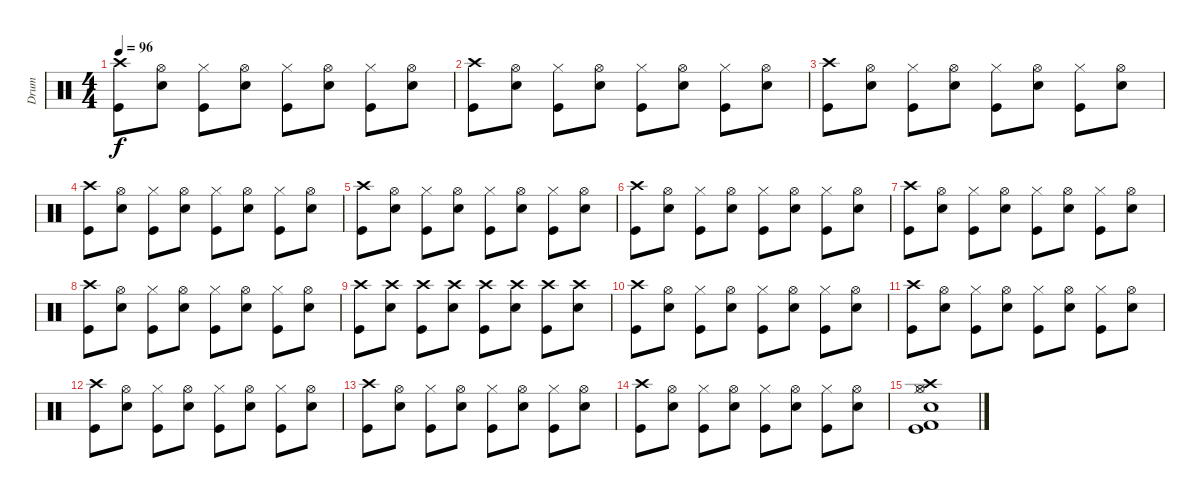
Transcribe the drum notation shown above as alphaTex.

\track ("Drum" "Drum") {instrument percussion}
\staff {score}
\articulation defaults
\ts (4 4)
\tempo 96
\clef neutral
\ks c
("Crash high (hit)" "Kick (hit)").8{dy f} ("Hi-Hat (open)" "Electric Snare (hit)").8 ("Hi-Hat (closed)" "Kick (hit)").8 ("Hi-Hat (open)" "Electric Snare (hit)").8 ("Hi-Hat (closed)" "Kick (hit)").8 ("Hi-Hat (open)" "Electric Snare (hit)").8 ("Hi-Hat (closed)" "Kick (hit)").8 ("Hi-Hat (open)" "Electric Snare (hit)").8 |
("Crash high (hit)" "Kick (hit)").8 ("Hi-Hat (open)" "Electric Snare (hit)").8 ("Hi-Hat (closed)" "Kick (hit)").8 ("Hi-Hat (open)" "Electric Snare (hit)").8 ("Hi-Hat (closed)" "Kick (hit)").8 ("Hi-Hat (open)" "Electric Snare (hit)").8 ("Hi-Hat (closed)" "Kick (hit)").8 ("Hi-Hat (open)" "Electric Snare (hit)").8 |
("Crash high (hit)" "Kick (hit)").8 ("Hi-Hat (open)" "Electric Snare (hit)").8 ("Hi-Hat (closed)" "Kick (hit)").8 ("Hi-Hat (open)" "Electric Snare (hit)").8 ("Hi-Hat (closed)" "Kick (hit)").8 ("Hi-Hat (open)" "Electric Snare (hit)").8 ("Hi-Hat (closed)" "Kick (hit)").8 ("Hi-Hat (open)" "Electric Snare (hit)").8 |
("Crash high (hit)" "Kick (hit)").8 ("Hi-Hat (open)" "Electric Snare (hit)").8 ("Hi-Hat (closed)" "Kick (hit)").8 ("Hi-Hat (open)" "Electric Snare (hit)").8 ("Hi-Hat (closed)" "Kick (hit)").8 ("Hi-Hat (open)" "Electric Snare (hit)").8 ("Hi-Hat (closed)" "Kick (hit)").8 ("Hi-Hat (open)" "Electric Snare (hit)").8 |
("Crash high (hit)" "Kick (hit)").8 ("Hi-Hat (open)" "Electric Snare (hit)").8 ("Hi-Hat (closed)" "Kick (hit)").8 ("Hi-Hat (open)" "Electric Snare (hit)").8 ("Hi-Hat (closed)" "Kick (hit)").8 ("Hi-Hat (open)" "Electric Snare (hit)").8 ("Hi-Hat (closed)" "Kick (hit)").8 ("Hi-Hat (open)" "Electric Snare (hit)").8 |
("Crash high (hit)" "Kick (hit)").8 ("Hi-Hat (open)" "Electric Snare (hit)").8 ("Hi-Hat (closed)" "Kick (hit)").8 ("Hi-Hat (open)" "Electric Snare (hit)").8 ("Hi-Hat (closed)" "Kick (hit)").8 ("Hi-Hat (open)" "Electric Snare (hit)").8 ("Hi-Hat (closed)" "Kick (hit)").8 ("Hi-Hat (open)" "Electric Snare (hit)").8 |
("Crash high (hit)" "Kick (hit)").8 ("Hi-Hat (open)" "Electric Snare (hit)").8 ("Hi-Hat (closed)" "Kick (hit)").8 ("Hi-Hat (open)" "Electric Snare (hit)").8 ("Hi-Hat (closed)" "Kick (hit)").8 ("Hi-Hat (open)" "Electric Snare (hit)").8 ("Hi-Hat (closed)" "Kick (hit)").8 ("Hi-Hat (open)" "Electric Snare (hit)").8 |
("Crash high (hit)" "Kick (hit)").8 ("Hi-Hat (open)" "Electric Snare (hit)").8 ("Hi-Hat (closed)" "Kick (hit)").8 ("Hi-Hat (open)" "Electric Snare (hit)").8 ("Hi-Hat (closed)" "Kick (hit)").8 ("Hi-Hat (open)" "Electric Snare (hit)").8 ("Hi-Hat (closed)" "Kick (hit)").8 ("Hi-Hat (open)" "Electric Snare (hit)").8 |
("Crash high (hit)" "Kick (hit)").8 ("Crash high (hit)" "Electric Snare (hit)").8 ("Crash high (hit)" "Kick (hit)").8 ("Crash high (hit)" "Electric Snare (hit)").8 ("Crash high (hit)" "Kick (hit)").8 ("Crash high (hit)" "Electric Snare (hit)").8 ("Crash high (hit)" "Kick (hit)").8 ("Crash high (hit)" "Electric Snare (hit)").8 |
("Crash high (hit)" "Kick (hit)").8 ("Hi-Hat (open)" "Electric Snare (hit)").8 ("Hi-Hat (closed)" "Kick (hit)").8 ("Hi-Hat (open)" "Electric Snare (hit)").8 ("Hi-Hat (closed)" "Kick (hit)").8 ("Hi-Hat (open)" "Electric Snare (hit)").8 ("Hi-Hat (closed)" "Kick (hit)").8 ("Hi-Hat (open)" "Electric Snare (hit)").8 |
("Crash high (hit)" "Kick (hit)").8 ("Hi-Hat (open)" "Electric Snare (hit)").8 ("Hi-Hat (closed)" "Kick (hit)").8 ("Hi-Hat (open)" "Electric Snare (hit)").8 ("Hi-Hat (closed)" "Kick (hit)").8 ("Hi-Hat (open)" "Electric Snare (hit)").8 ("Hi-Hat (closed)" "Kick (hit)").8 ("Hi-Hat (open)" "Electric Snare (hit)").8 |
("Crash high (hit)" "Kick (hit)").8 ("Hi-Hat (open)" "Electric Snare (hit)").8 ("Hi-Hat (closed)" "Kick (hit)").8 ("Hi-Hat (open)" "Electric Snare (hit)").8 ("Hi-Hat (closed)" "Kick (hit)").8 ("Hi-Hat (open)" "Electric Snare (hit)").8 ("Hi-Hat (closed)" "Kick (hit)").8 ("Hi-Hat (open)" "Electric Snare (hit)").8 |
("Crash high (hit)" "Kick (hit)").8 ("Hi-Hat (open)" "Electric Snare (hit)").8 ("Hi-Hat (closed)" "Kick (hit)").8 ("Hi-Hat (open)" "Electric Snare (hit)").8 ("Hi-Hat (closed)" "Kick (hit)").8 ("Hi-Hat (open)" "Electric Snare (hit)").8 ("Hi-Hat (closed)" "Kick (hit)").8 ("Hi-Hat (open)" "Electric Snare (hit)").8 |
("Crash high (hit)" "Kick (hit)").8 ("Hi-Hat (open)" "Electric Snare (hit)").8 ("Hi-Hat (closed)" "Kick (hit)").8 ("Hi-Hat (open)" "Electric Snare (hit)").8 ("Hi-Hat (closed)" "Kick (hit)").8 ("Hi-Hat (open)" "Electric Snare (hit)").8 ("Hi-Hat (closed)" "Kick (hit)").8 ("Hi-Hat (open)" "Electric Snare (hit)").8 |
("Crash high (hit)" "Hi-Hat (closed)" "Hi-Hat (open)" "Electric Snare (hit)" "Kick (hit) 2" "Kick (hit)").1
